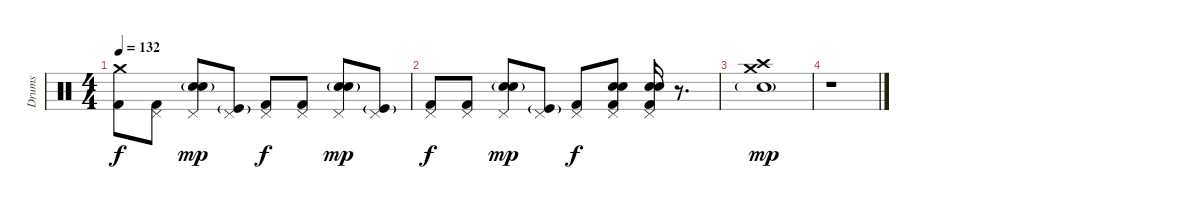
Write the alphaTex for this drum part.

\track ("Drums" "Drums") {instrument percussion}
\staff {score}
\articulation defaults
\ts (4 4)
\tempo 132
\clef neutral
\ks c
("Crash medium (hit)" "Kick (hit) 2").8{dy f} ("Pedal Hi-Hat (hit)" "Kick (hit) 2").8 ("Pedal Hi-Hat (hit)" "Electric Snare (hit)" "Snare (hit) 2"{g}).8{dy mp} ("Pedal Hi-Hat (hit)" "Kick (hit)"{g}).8 ("Pedal Hi-Hat (hit)" "Kick (hit) 2").8{dy f} ("Pedal Hi-Hat (hit)" "Kick (hit) 2").8 ("Pedal Hi-Hat (hit)" "Electric Snare (hit)" "Snare (hit) 2"{g}).8{dy mp} ("Pedal Hi-Hat (hit)" "Kick (hit)"{g}).8 |
("Pedal Hi-Hat (hit)" "Kick (hit) 2").8{dy f} ("Pedal Hi-Hat (hit)" "Kick (hit) 2").8 ("Pedal Hi-Hat (hit)" "Electric Snare (hit)" "Snare (hit) 2"{g}).8{dy mp} ("Pedal Hi-Hat (hit)" "Kick (hit)"{g}).8 ("Pedal Hi-Hat (hit)" "Kick (hit) 2").8{dy f} ("Pedal Hi-Hat (hit)" "Electric Snare (hit)" "Electric Snare (hit)" "Kick (hit) 2").8 ("Pedal Hi-Hat (hit)" "Electric Snare (hit)" "Electric Snare (hit)" "Kick (hit) 2").16 r.8{d} |
("Crash medium (hit)" "Crash high (hit)" "Electric Snare (hit)"{g}).1{dy mp} |
r.1
